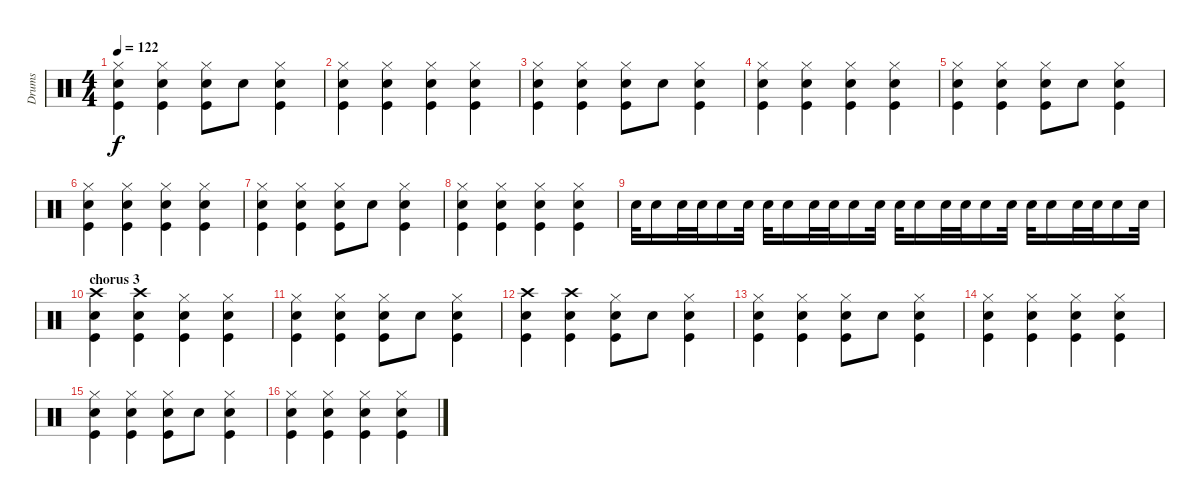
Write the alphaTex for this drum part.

\track ("Drums" "Drums") {instrument percussion}
\staff {score}
\articulation defaults
\ts (4 4)
\tempo 122
\clef neutral
\ks c
("Hi-Hat (closed)" "Electric Snare (hit)" "Kick (hit)").4{dy f} ("Hi-Hat (closed)" "Electric Snare (hit)" "Kick (hit)").4 ("Hi-Hat (closed)" "Electric Snare (hit)" "Kick (hit)").8 "Electric Snare (hit)".8 ("Hi-Hat (closed)" "Electric Snare (hit)" "Kick (hit)").4 |
("Hi-Hat (closed)" "Electric Snare (hit)" "Kick (hit)").4 ("Hi-Hat (closed)" "Electric Snare (hit)" "Kick (hit)").4 ("Hi-Hat (closed)" "Electric Snare (hit)" "Kick (hit)").4 ("Hi-Hat (closed)" "Electric Snare (hit)" "Kick (hit)").4 |
("Hi-Hat (closed)" "Electric Snare (hit)" "Kick (hit)").4 ("Hi-Hat (closed)" "Electric Snare (hit)" "Kick (hit)").4 ("Hi-Hat (closed)" "Electric Snare (hit)" "Kick (hit)").8 "Electric Snare (hit)".8 ("Hi-Hat (closed)" "Electric Snare (hit)" "Kick (hit)").4 |
("Hi-Hat (closed)" "Electric Snare (hit)" "Kick (hit)").4 ("Hi-Hat (closed)" "Electric Snare (hit)" "Kick (hit)").4 ("Hi-Hat (closed)" "Electric Snare (hit)" "Kick (hit)").4 ("Hi-Hat (closed)" "Electric Snare (hit)" "Kick (hit)").4 |
("Hi-Hat (closed)" "Electric Snare (hit)" "Kick (hit)").4 ("Hi-Hat (closed)" "Electric Snare (hit)" "Kick (hit)").4 ("Hi-Hat (closed)" "Electric Snare (hit)" "Kick (hit)").8 "Electric Snare (hit)".8 ("Hi-Hat (closed)" "Electric Snare (hit)" "Kick (hit)").4 |
("Hi-Hat (closed)" "Electric Snare (hit)" "Kick (hit)").4 ("Hi-Hat (closed)" "Electric Snare (hit)" "Kick (hit)").4 ("Hi-Hat (closed)" "Electric Snare (hit)" "Kick (hit)").4 ("Hi-Hat (closed)" "Electric Snare (hit)" "Kick (hit)").4 |
("Hi-Hat (closed)" "Electric Snare (hit)" "Kick (hit)").4 ("Hi-Hat (closed)" "Electric Snare (hit)" "Kick (hit)").4 ("Hi-Hat (closed)" "Electric Snare (hit)" "Kick (hit)").8 "Electric Snare (hit)".8 ("Hi-Hat (closed)" "Electric Snare (hit)" "Kick (hit)").4 |
("Hi-Hat (closed)" "Electric Snare (hit)" "Kick (hit)").4 ("Hi-Hat (closed)" "Electric Snare (hit)" "Kick (hit)").4 ("Hi-Hat (closed)" "Electric Snare (hit)" "Kick (hit)").4 ("Hi-Hat (closed)" "Electric Snare (hit)" "Kick (hit)").4 |
"Electric Snare (hit)".32 "Electric Snare (hit)".16 "Electric Snare (hit)".32 "Electric Snare (hit)".32 "Electric Snare (hit)".16 "Electric Snare (hit)".32 "Electric Snare (hit)".32 "Electric Snare (hit)".16 "Electric Snare (hit)".32 "Electric Snare (hit)".32 "Electric Snare (hit)".16 "Electric Snare (hit)".32 "Electric Snare (hit)".32 "Electric Snare (hit)".16 "Electric Snare (hit)".32 "Electric Snare (hit)".32 "Electric Snare (hit)".16 "Electric Snare (hit)".32 "Electric Snare (hit)".32 "Electric Snare (hit)".16 "Electric Snare (hit)".32 "Electric Snare (hit)".32 "Electric Snare (hit)".16 "Electric Snare (hit)".32 |
\section ("" "chorus 3")
("Crash high (hit)" "Electric Snare (hit)" "Kick (hit)").4 ("Crash high (hit)" "Electric Snare (hit)" "Kick (hit)").4 ("Hi-Hat (closed)" "Electric Snare (hit)" "Kick (hit)").4 ("Hi-Hat (closed)" "Electric Snare (hit)" "Kick (hit)").4 |
("Hi-Hat (closed)" "Electric Snare (hit)" "Kick (hit)").4 ("Hi-Hat (closed)" "Electric Snare (hit)" "Kick (hit)").4 ("Hi-Hat (closed)" "Electric Snare (hit)" "Kick (hit)").8 "Electric Snare (hit)".8 ("Hi-Hat (closed)" "Electric Snare (hit)" "Kick (hit)").4 |
("Crash high (hit)" "Electric Snare (hit)" "Kick (hit)").4 ("Crash high (hit)" "Electric Snare (hit)" "Kick (hit)").4 ("Hi-Hat (closed)" "Electric Snare (hit)" "Kick (hit)").8 "Electric Snare (hit)".8 ("Hi-Hat (closed)" "Electric Snare (hit)" "Kick (hit)").4 |
("Hi-Hat (closed)" "Electric Snare (hit)" "Kick (hit)").4 ("Hi-Hat (closed)" "Electric Snare (hit)" "Kick (hit)").4 ("Hi-Hat (closed)" "Electric Snare (hit)" "Kick (hit)").8 "Electric Snare (hit)".8 ("Hi-Hat (closed)" "Electric Snare (hit)" "Kick (hit)").4 |
("Hi-Hat (closed)" "Electric Snare (hit)" "Kick (hit)").4 ("Hi-Hat (closed)" "Electric Snare (hit)" "Kick (hit)").4 ("Hi-Hat (closed)" "Electric Snare (hit)" "Kick (hit)").4 ("Hi-Hat (closed)" "Electric Snare (hit)" "Kick (hit)").4 |
("Hi-Hat (closed)" "Electric Snare (hit)" "Kick (hit)").4 ("Hi-Hat (closed)" "Electric Snare (hit)" "Kick (hit)").4 ("Hi-Hat (closed)" "Electric Snare (hit)" "Kick (hit)").8 "Electric Snare (hit)".8 ("Hi-Hat (closed)" "Electric Snare (hit)" "Kick (hit)").4 |
("Hi-Hat (closed)" "Electric Snare (hit)" "Kick (hit)").4 ("Hi-Hat (closed)" "Electric Snare (hit)" "Kick (hit)").4 ("Hi-Hat (closed)" "Electric Snare (hit)" "Kick (hit)").4 ("Hi-Hat (closed)" "Electric Snare (hit)" "Kick (hit)").4
